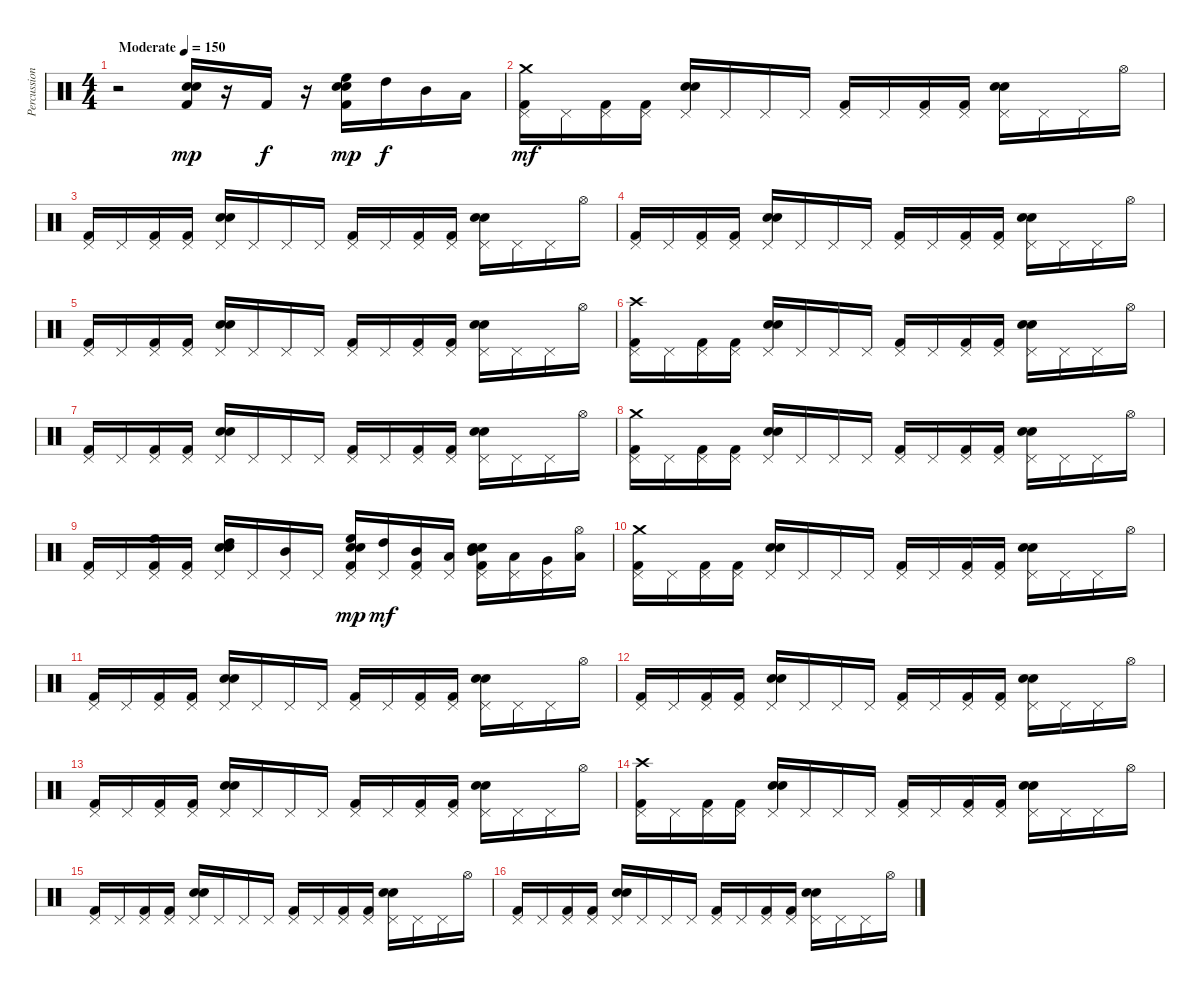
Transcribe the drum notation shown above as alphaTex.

\track ("Percussion (Power Kit)" "Percussion") {instrument percussion}
\staff {score}
\articulation defaults
\ts (4 4)
\tempo (150 "Moderate")
\clef neutral
\ks c
r.2{dy mp} ("Electric Snare (hit)" "Snare (hit) 2" "Kick (hit) 2").16 r.16 "Kick (hit) 2".16{dy f} r.16 ("Kick (hit) 2" "Electric Snare (hit)" "High Floor Tom (hit)" "Snare (hit) 2").16{dy mp} "High Tom (hit)".16{dy f} "Mid Tom (hit)".16 "Low Tom (hit)".16 |
("Kick (hit) 2" "Pedal Hi-Hat (hit)" "Crash medium (hit)").16{dy mf} "Pedal Hi-Hat (hit)".16 ("Pedal Hi-Hat (hit)" "Kick (hit) 2").16 ("Pedal Hi-Hat (hit)" "Kick (hit) 2").16 ("Electric Snare (hit)" "Snare (hit) 2" "Pedal Hi-Hat (hit)").16 "Pedal Hi-Hat (hit)".16 "Pedal Hi-Hat (hit)".16 "Pedal Hi-Hat (hit)".16 ("Kick (hit) 2" "Pedal Hi-Hat (hit)").16 "Pedal Hi-Hat (hit)".16 ("Pedal Hi-Hat (hit)" "Kick (hit) 2").16 ("Pedal Hi-Hat (hit)" "Kick (hit) 2").16 ("Electric Snare (hit)" "Snare (hit) 2" "Pedal Hi-Hat (hit)").16 "Pedal Hi-Hat (hit)".16 "Pedal Hi-Hat (hit)".16 "Hi-Hat (open)".16 |
("Kick (hit) 2" "Pedal Hi-Hat (hit)").16 "Pedal Hi-Hat (hit)".16 ("Pedal Hi-Hat (hit)" "Kick (hit) 2").16 ("Pedal Hi-Hat (hit)" "Kick (hit) 2").16 ("Electric Snare (hit)" "Snare (hit) 2" "Pedal Hi-Hat (hit)").16 "Pedal Hi-Hat (hit)".16 "Pedal Hi-Hat (hit)".16 "Pedal Hi-Hat (hit)".16 ("Kick (hit) 2" "Pedal Hi-Hat (hit)").16 "Pedal Hi-Hat (hit)".16 ("Pedal Hi-Hat (hit)" "Kick (hit) 2").16 ("Pedal Hi-Hat (hit)" "Kick (hit) 2").16 ("Electric Snare (hit)" "Snare (hit) 2" "Pedal Hi-Hat (hit)").16 "Pedal Hi-Hat (hit)".16 "Pedal Hi-Hat (hit)".16 "Hi-Hat (open)".16 |
("Kick (hit) 2" "Pedal Hi-Hat (hit)").16 "Pedal Hi-Hat (hit)".16 ("Pedal Hi-Hat (hit)" "Kick (hit) 2").16 ("Pedal Hi-Hat (hit)" "Kick (hit) 2").16 ("Electric Snare (hit)" "Snare (hit) 2" "Pedal Hi-Hat (hit)").16 "Pedal Hi-Hat (hit)".16 "Pedal Hi-Hat (hit)".16 "Pedal Hi-Hat (hit)".16 ("Kick (hit) 2" "Pedal Hi-Hat (hit)").16 "Pedal Hi-Hat (hit)".16 ("Pedal Hi-Hat (hit)" "Kick (hit) 2").16 ("Pedal Hi-Hat (hit)" "Kick (hit) 2").16 ("Electric Snare (hit)" "Snare (hit) 2" "Pedal Hi-Hat (hit)").16 "Pedal Hi-Hat (hit)".16 "Pedal Hi-Hat (hit)".16 "Hi-Hat (open)".16 |
("Kick (hit) 2" "Pedal Hi-Hat (hit)").16 "Pedal Hi-Hat (hit)".16 ("Pedal Hi-Hat (hit)" "Kick (hit) 2").16 ("Pedal Hi-Hat (hit)" "Kick (hit) 2").16 ("Electric Snare (hit)" "Snare (hit) 2" "Pedal Hi-Hat (hit)").16 "Pedal Hi-Hat (hit)".16 "Pedal Hi-Hat (hit)".16 "Pedal Hi-Hat (hit)".16 ("Kick (hit) 2" "Pedal Hi-Hat (hit)").16 "Pedal Hi-Hat (hit)".16 ("Pedal Hi-Hat (hit)" "Kick (hit) 2").16 ("Pedal Hi-Hat (hit)" "Kick (hit) 2").16 ("Electric Snare (hit)" "Snare (hit) 2" "Pedal Hi-Hat (hit)").16 "Pedal Hi-Hat (hit)".16 "Pedal Hi-Hat (hit)".16 "Hi-Hat (open)".16 |
("Kick (hit) 2" "Pedal Hi-Hat (hit)" "Crash high (hit)").16 "Pedal Hi-Hat (hit)".16 ("Pedal Hi-Hat (hit)" "Kick (hit) 2").16 ("Pedal Hi-Hat (hit)" "Kick (hit) 2").16 ("Electric Snare (hit)" "Snare (hit) 2" "Pedal Hi-Hat (hit)").16 "Pedal Hi-Hat (hit)".16 "Pedal Hi-Hat (hit)".16 "Pedal Hi-Hat (hit)".16 ("Kick (hit) 2" "Pedal Hi-Hat (hit)").16 "Pedal Hi-Hat (hit)".16 ("Pedal Hi-Hat (hit)" "Kick (hit) 2").16 ("Pedal Hi-Hat (hit)" "Kick (hit) 2").16 ("Electric Snare (hit)" "Snare (hit) 2" "Pedal Hi-Hat (hit)").16 "Pedal Hi-Hat (hit)".16 "Pedal Hi-Hat (hit)".16 "Hi-Hat (open)".16 |
("Kick (hit) 2" "Pedal Hi-Hat (hit)").16 "Pedal Hi-Hat (hit)".16 ("Pedal Hi-Hat (hit)" "Kick (hit) 2").16 ("Pedal Hi-Hat (hit)" "Kick (hit) 2").16 ("Electric Snare (hit)" "Snare (hit) 2" "Pedal Hi-Hat (hit)").16 "Pedal Hi-Hat (hit)".16 "Pedal Hi-Hat (hit)".16 "Pedal Hi-Hat (hit)".16 ("Kick (hit) 2" "Pedal Hi-Hat (hit)").16 "Pedal Hi-Hat (hit)".16 ("Pedal Hi-Hat (hit)" "Kick (hit) 2").16 ("Pedal Hi-Hat (hit)" "Kick (hit) 2").16 ("Electric Snare (hit)" "Snare (hit) 2" "Pedal Hi-Hat (hit)").16 "Pedal Hi-Hat (hit)".16 "Pedal Hi-Hat (hit)".16 "Hi-Hat (open)".16 |
("Kick (hit) 2" "Pedal Hi-Hat (hit)" "Crash medium (hit)").16 "Pedal Hi-Hat (hit)".16 ("Pedal Hi-Hat (hit)" "Kick (hit) 2").16 ("Pedal Hi-Hat (hit)" "Kick (hit) 2").16 ("Electric Snare (hit)" "Snare (hit) 2" "Pedal Hi-Hat (hit)").16 "Pedal Hi-Hat (hit)".16 "Pedal Hi-Hat (hit)".16 "Pedal Hi-Hat (hit)".16 ("Kick (hit) 2" "Pedal Hi-Hat (hit)").16 "Pedal Hi-Hat (hit)".16 ("Pedal Hi-Hat (hit)" "Kick (hit) 2").16 ("Pedal Hi-Hat (hit)" "Kick (hit) 2").16 ("Electric Snare (hit)" "Snare (hit) 2" "Pedal Hi-Hat (hit)").16 "Pedal Hi-Hat (hit)".16 "Pedal Hi-Hat (hit)".16 "Hi-Hat (open)".16 |
("Kick (hit) 2" "Pedal Hi-Hat (hit)").16 "Pedal Hi-Hat (hit)".16 ("Pedal Hi-Hat (hit)" "High Floor Tom (hit)" "Kick (hit) 2").16 ("Pedal Hi-Hat (hit)" "Kick (hit) 2").16 ("Electric Snare (hit)" "Snare (hit) 2" "Pedal Hi-Hat (hit)" "High Tom (hit)").16 "Pedal Hi-Hat (hit)".16 ("Pedal Hi-Hat (hit)" "Mid Tom (hit)").16 "Pedal Hi-Hat (hit)".16 ("Kick (hit) 2" "Pedal Hi-Hat (hit)" "High Floor Tom (hit)" "Electric Snare (hit)" "Snare (hit) 2").16{dy mp} ("Pedal Hi-Hat (hit)" "High Tom (hit)").16{dy mf} ("Pedal Hi-Hat (hit)" "Mid Tom (hit)" "Kick (hit) 2").16 ("Pedal Hi-Hat (hit)" "Low Tom (hit)").16 ("Electric Snare (hit)" "Snare (hit) 2" "Pedal Hi-Hat (hit)" "Mid Tom (hit)" "Kick (hit) 2").16 ("Pedal Hi-Hat (hit)" "Low Tom (hit)").16 ("Pedal Hi-Hat (hit)" "Very Low Tom (hit)").16 ("Hi-Hat (open)" "Low Floor Tom (hit)").16 |
("Kick (hit) 2" "Pedal Hi-Hat (hit)" "Crash medium (hit)").16 "Pedal Hi-Hat (hit)".16 ("Pedal Hi-Hat (hit)" "Kick (hit) 2").16 ("Pedal Hi-Hat (hit)" "Kick (hit) 2").16 ("Electric Snare (hit)" "Snare (hit) 2" "Pedal Hi-Hat (hit)").16 "Pedal Hi-Hat (hit)".16 "Pedal Hi-Hat (hit)".16 "Pedal Hi-Hat (hit)".16 ("Kick (hit) 2" "Pedal Hi-Hat (hit)").16 "Pedal Hi-Hat (hit)".16 ("Pedal Hi-Hat (hit)" "Kick (hit) 2").16 ("Pedal Hi-Hat (hit)" "Kick (hit) 2").16 ("Electric Snare (hit)" "Snare (hit) 2" "Pedal Hi-Hat (hit)").16 "Pedal Hi-Hat (hit)".16 "Pedal Hi-Hat (hit)".16 "Hi-Hat (open)".16 |
("Kick (hit) 2" "Pedal Hi-Hat (hit)").16 "Pedal Hi-Hat (hit)".16 ("Pedal Hi-Hat (hit)" "Kick (hit) 2").16 ("Pedal Hi-Hat (hit)" "Kick (hit) 2").16 ("Electric Snare (hit)" "Snare (hit) 2" "Pedal Hi-Hat (hit)").16 "Pedal Hi-Hat (hit)".16 "Pedal Hi-Hat (hit)".16 "Pedal Hi-Hat (hit)".16 ("Kick (hit) 2" "Pedal Hi-Hat (hit)").16 "Pedal Hi-Hat (hit)".16 ("Pedal Hi-Hat (hit)" "Kick (hit) 2").16 ("Pedal Hi-Hat (hit)" "Kick (hit) 2").16 ("Electric Snare (hit)" "Snare (hit) 2" "Pedal Hi-Hat (hit)").16 "Pedal Hi-Hat (hit)".16 "Pedal Hi-Hat (hit)".16 "Hi-Hat (open)".16 |
("Kick (hit) 2" "Pedal Hi-Hat (hit)").16 "Pedal Hi-Hat (hit)".16 ("Pedal Hi-Hat (hit)" "Kick (hit) 2").16 ("Pedal Hi-Hat (hit)" "Kick (hit) 2").16 ("Electric Snare (hit)" "Snare (hit) 2" "Pedal Hi-Hat (hit)").16 "Pedal Hi-Hat (hit)".16 "Pedal Hi-Hat (hit)".16 "Pedal Hi-Hat (hit)".16 ("Kick (hit) 2" "Pedal Hi-Hat (hit)").16 "Pedal Hi-Hat (hit)".16 ("Pedal Hi-Hat (hit)" "Kick (hit) 2").16 ("Pedal Hi-Hat (hit)" "Kick (hit) 2").16 ("Electric Snare (hit)" "Snare (hit) 2" "Pedal Hi-Hat (hit)").16 "Pedal Hi-Hat (hit)".16 "Pedal Hi-Hat (hit)".16 "Hi-Hat (open)".16 |
("Kick (hit) 2" "Pedal Hi-Hat (hit)").16 "Pedal Hi-Hat (hit)".16 ("Pedal Hi-Hat (hit)" "Kick (hit) 2").16 ("Pedal Hi-Hat (hit)" "Kick (hit) 2").16 ("Electric Snare (hit)" "Snare (hit) 2" "Pedal Hi-Hat (hit)").16 "Pedal Hi-Hat (hit)".16 "Pedal Hi-Hat (hit)".16 "Pedal Hi-Hat (hit)".16 ("Kick (hit) 2" "Pedal Hi-Hat (hit)").16 "Pedal Hi-Hat (hit)".16 ("Pedal Hi-Hat (hit)" "Kick (hit) 2").16 ("Pedal Hi-Hat (hit)" "Kick (hit) 2").16 ("Electric Snare (hit)" "Snare (hit) 2" "Pedal Hi-Hat (hit)").16 "Pedal Hi-Hat (hit)".16 "Pedal Hi-Hat (hit)".16 "Hi-Hat (open)".16 |
("Kick (hit) 2" "Pedal Hi-Hat (hit)" "Crash high (hit)").16 "Pedal Hi-Hat (hit)".16 ("Pedal Hi-Hat (hit)" "Kick (hit) 2").16 ("Pedal Hi-Hat (hit)" "Kick (hit) 2").16 ("Electric Snare (hit)" "Snare (hit) 2" "Pedal Hi-Hat (hit)").16 "Pedal Hi-Hat (hit)".16 "Pedal Hi-Hat (hit)".16 "Pedal Hi-Hat (hit)".16 ("Kick (hit) 2" "Pedal Hi-Hat (hit)").16 "Pedal Hi-Hat (hit)".16 ("Pedal Hi-Hat (hit)" "Kick (hit) 2").16 ("Pedal Hi-Hat (hit)" "Kick (hit) 2").16 ("Electric Snare (hit)" "Snare (hit) 2" "Pedal Hi-Hat (hit)").16 "Pedal Hi-Hat (hit)".16 "Pedal Hi-Hat (hit)".16 "Hi-Hat (open)".16 |
("Kick (hit) 2" "Pedal Hi-Hat (hit)").16 "Pedal Hi-Hat (hit)".16 ("Pedal Hi-Hat (hit)" "Kick (hit) 2").16 ("Pedal Hi-Hat (hit)" "Kick (hit) 2").16 ("Electric Snare (hit)" "Snare (hit) 2" "Pedal Hi-Hat (hit)").16 "Pedal Hi-Hat (hit)".16 "Pedal Hi-Hat (hit)".16 "Pedal Hi-Hat (hit)".16 ("Kick (hit) 2" "Pedal Hi-Hat (hit)").16 "Pedal Hi-Hat (hit)".16 ("Pedal Hi-Hat (hit)" "Kick (hit) 2").16 ("Pedal Hi-Hat (hit)" "Kick (hit) 2").16 ("Electric Snare (hit)" "Snare (hit) 2" "Pedal Hi-Hat (hit)").16 "Pedal Hi-Hat (hit)".16 "Pedal Hi-Hat (hit)".16 "Hi-Hat (open)".16 |
("Kick (hit) 2" "Pedal Hi-Hat (hit)").16 "Pedal Hi-Hat (hit)".16 ("Pedal Hi-Hat (hit)" "Kick (hit) 2").16 ("Pedal Hi-Hat (hit)" "Kick (hit) 2").16 ("Electric Snare (hit)" "Snare (hit) 2" "Pedal Hi-Hat (hit)").16 "Pedal Hi-Hat (hit)".16 "Pedal Hi-Hat (hit)".16 "Pedal Hi-Hat (hit)".16 ("Kick (hit) 2" "Pedal Hi-Hat (hit)").16 "Pedal Hi-Hat (hit)".16 ("Pedal Hi-Hat (hit)" "Kick (hit) 2").16 ("Pedal Hi-Hat (hit)" "Kick (hit) 2").16 ("Electric Snare (hit)" "Snare (hit) 2" "Pedal Hi-Hat (hit)").16 "Pedal Hi-Hat (hit)".16 "Pedal Hi-Hat (hit)".16 "Hi-Hat (open)".16
